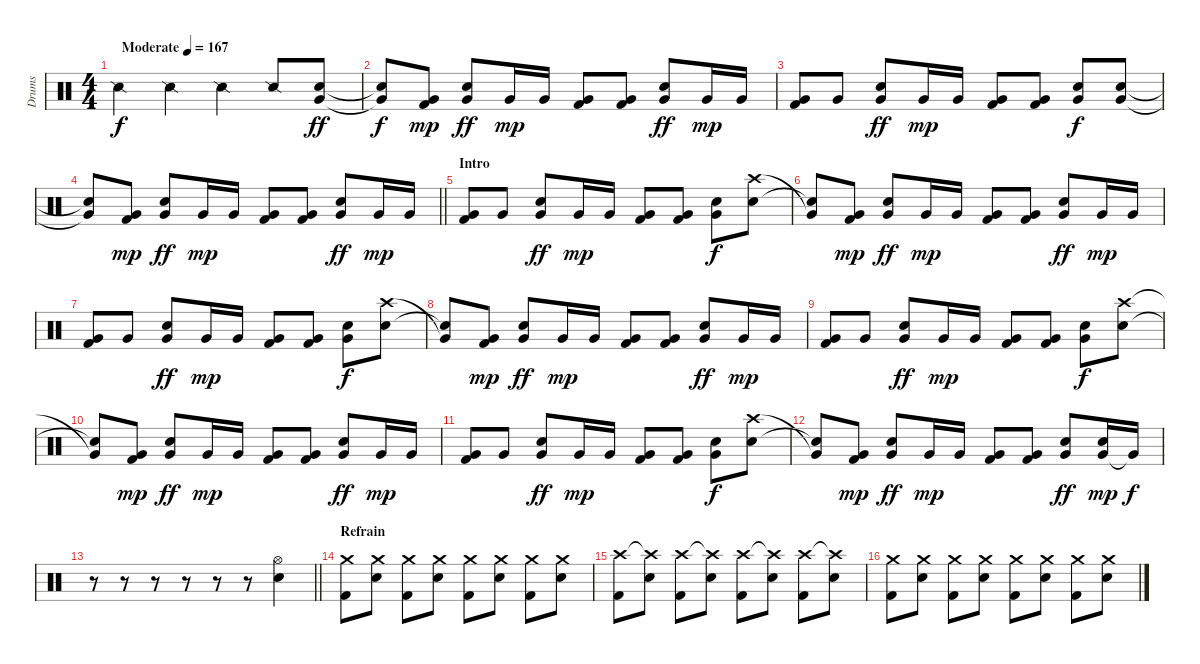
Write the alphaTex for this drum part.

\track ("Drums" "Drums") {instrument percussion}
\staff {score}
\articulation defaults
\ts (4 4)
\tempo (167 "Moderate")
\clef neutral
\ks c "Snare (side stick) 2".4{dy f} "Snare (side stick) 2".4 "Snare (side stick) 2".4 "Snare (side stick) 2".8
("Very Low Tom (hit)" "Snare (hit) 2").8{dy ff} |
("Very Low Tom (hit)"{t} "Snare (hit)"{t}).8{dy f} ("Very Low Tom (hit)" "Kick (hit) 2").8{dy mp} ("Very Low Tom (hit)" "Snare (hit) 2").8{dy ff} "Very Low Tom (hit)".16{dy mp} "Very Low Tom (hit)".16 ("Very Low Tom (hit)" "Kick (hit) 2").8 ("Very Low Tom (hit)" "Kick (hit) 2").8 ("Very Low Tom (hit)" "Snare (hit) 2").8{dy ff} "Very Low Tom (hit)".16{dy mp} "Very Low Tom (hit)".16 |
("Very Low Tom (hit)" "Kick (hit) 2").8 "Very Low Tom (hit)".8 ("Very Low Tom (hit)" "Snare (hit) 2").8{dy ff} "Very Low Tom (hit)".16{dy mp} "Very Low Tom (hit)".16 ("Very Low Tom (hit)" "Kick (hit) 2").8 ("Very Low Tom (hit)" "Kick (hit) 2").8 ("Very Low Tom (hit)" "Snare (hit) 2").8{dy f} ("Very Low Tom (hit)" "Snare (hit) 2").8 |
\barLineRight lightlight
("Very Low Tom (hit)"{t} "Snare (hit)"{t}).8 ("Very Low Tom (hit)" "Kick (hit) 2").8{dy mp} ("Very Low Tom (hit)" "Snare (hit) 2").8{dy ff} "Very Low Tom (hit)".16{dy mp} "Very Low Tom (hit)".16 ("Very Low Tom (hit)" "Kick (hit) 2").8 ("Very Low Tom (hit)" "Kick (hit) 2").8 ("Very Low Tom (hit)" "Snare (hit) 2").8{dy ff} "Very Low Tom (hit)".16{dy mp} "Very Low Tom (hit)".16 |
\section ("" "Intro")
("Very Low Tom (hit)" "Kick (hit) 2").8 "Very Low Tom (hit)".8 ("Very Low Tom (hit)" "Snare (hit) 2").8{dy ff} "Very Low Tom (hit)".16{dy mp} "Very Low Tom (hit)".16 ("Very Low Tom (hit)" "Kick (hit) 2").8 ("Very Low Tom (hit)" "Kick (hit) 2").8 ("Very Low Tom (hit)" "Snare (hit) 2").8{dy f} ("Crash high (hit)" "Snare (hit) 2").8 |
("Very Low Tom (hit)"{t} "Snare (hit)"{t}).8 ("Very Low Tom (hit)" "Kick (hit) 2").8{dy mp} ("Very Low Tom (hit)" "Snare (hit) 2").8{dy ff} "Very Low Tom (hit)".16{dy mp} "Very Low Tom (hit)".16 ("Very Low Tom (hit)" "Kick (hit) 2").8 ("Very Low Tom (hit)" "Kick (hit) 2").8 ("Very Low Tom (hit)" "Snare (hit) 2").8{dy ff} "Very Low Tom (hit)".16{dy mp} "Very Low Tom (hit)".16 |
("Very Low Tom (hit)" "Kick (hit) 2").8 "Very Low Tom (hit)".8 ("Very Low Tom (hit)" "Snare (hit) 2").8{dy ff} "Very Low Tom (hit)".16{dy mp} "Very Low Tom (hit)".16 ("Very Low Tom (hit)" "Kick (hit) 2").8 ("Very Low Tom (hit)" "Kick (hit) 2").8 ("Very Low Tom (hit)" "Snare (hit) 2").8{dy f} ("Crash high (hit)" "Snare (hit) 2").8 |
("Very Low Tom (hit)"{t} "Snare (hit)"{t}).8 ("Very Low Tom (hit)" "Kick (hit) 2").8{dy mp} ("Very Low Tom (hit)" "Snare (hit) 2").8{dy ff} "Very Low Tom (hit)".16{dy mp} "Very Low Tom (hit)".16 ("Very Low Tom (hit)" "Kick (hit) 2").8 ("Very Low Tom (hit)" "Kick (hit) 2").8 ("Very Low Tom (hit)" "Snare (hit) 2").8{dy ff} "Very Low Tom (hit)".16{dy mp} "Very Low Tom (hit)".16 |
("Very Low Tom (hit)" "Kick (hit) 2").8 "Very Low Tom (hit)".8 ("Very Low Tom (hit)" "Snare (hit) 2").8{dy ff} "Very Low Tom (hit)".16{dy mp} "Very Low Tom (hit)".16 ("Very Low Tom (hit)" "Kick (hit) 2").8 ("Very Low Tom (hit)" "Kick (hit) 2").8 ("Very Low Tom (hit)" "Snare (hit) 2").8{dy f} ("Crash high (hit)" "Snare (hit) 2").8 |
("Very Low Tom (hit)"{t} "Snare (hit)"{t}).8 ("Very Low Tom (hit)" "Kick (hit) 2").8{dy mp} ("Very Low Tom (hit)" "Snare (hit) 2").8{dy ff} "Very Low Tom (hit)".16{dy mp} "Very Low Tom (hit)".16 ("Very Low Tom (hit)" "Kick (hit) 2").8 ("Very Low Tom (hit)" "Kick (hit) 2").8 ("Very Low Tom (hit)" "Snare (hit) 2").8{dy ff} "Very Low Tom (hit)".16{dy mp} "Very Low Tom (hit)".16 |
("Very Low Tom (hit)" "Kick (hit) 2").8 "Very Low Tom (hit)".8 ("Very Low Tom (hit)" "Snare (hit) 2").8{dy ff} "Very Low Tom (hit)".16{dy mp} "Very Low Tom (hit)".16 ("Very Low Tom (hit)" "Kick (hit) 2").8 ("Very Low Tom (hit)" "Kick (hit) 2").8 ("Very Low Tom (hit)" "Snare (hit) 2").8{dy f} ("Crash high (hit)" "Snare (hit) 2").8 |
("Very Low Tom (hit)"{t} "Snare (hit)"{t}).8 ("Very Low Tom (hit)" "Kick (hit) 2").8{dy mp} ("Very Low Tom (hit)" "Snare (hit) 2").8{dy ff} "Very Low Tom (hit)".16{dy mp} "Very Low Tom (hit)".16 ("Very Low Tom (hit)" "Kick (hit) 2").8 ("Very Low Tom (hit)" "Kick (hit) 2").8 ("Very Low Tom (hit)" "Snare (hit) 2").8{dy ff} ("Very Low Tom (hit)" "Snare (hit) 2").16{dy mp} "Very Low Tom (hit)"{t}.16{dy f} |
\barLineRight lightlight
r.8 r.8 r.8 r.8 r.8 r.8 ("Hi-Hat (open)" "Snare (hit) 2").4 |
\section ("" "Refrain")
("Crash medium (hit)" "Kick (hit) 2").8 ("Crash medium (hit)" "Snare (hit) 2").8 ("Crash medium (hit)" "Kick (hit) 2").8 ("Crash medium (hit)" "Snare (hit) 2").8 ("Crash medium (hit)" "Kick (hit) 2").8 ("Crash medium (hit)" "Snare (hit) 2").8 ("Crash medium (hit)" "Kick (hit) 2").8 ("Crash medium (hit)" "Snare (hit) 2").8 |
("Crash high (hit)" "Kick (hit) 2").8 ("Crash high (hit)"{t} "Snare (hit) 2").8 ("Crash high (hit)" "Kick (hit) 2").8 ("Crash high (hit)"{t} "Snare (hit) 2").8 ("Crash high (hit)" "Kick (hit) 2").8 ("Crash high (hit)"{t} "Snare (hit) 2").8 ("Crash high (hit)" "Kick (hit) 2").8 ("Crash high (hit)"{t} "Snare (hit) 2").8 |
("Crash medium (hit)" "Kick (hit) 2").8 ("Crash medium (hit)" "Snare (hit) 2").8 ("Crash medium (hit)" "Kick (hit) 2").8 ("Crash medium (hit)" "Snare (hit) 2").8 ("Crash medium (hit)" "Kick (hit) 2").8 ("Crash medium (hit)" "Snare (hit) 2").8 ("Crash medium (hit)" "Kick (hit) 2").8 ("Crash medium (hit)" "Snare (hit) 2").8
